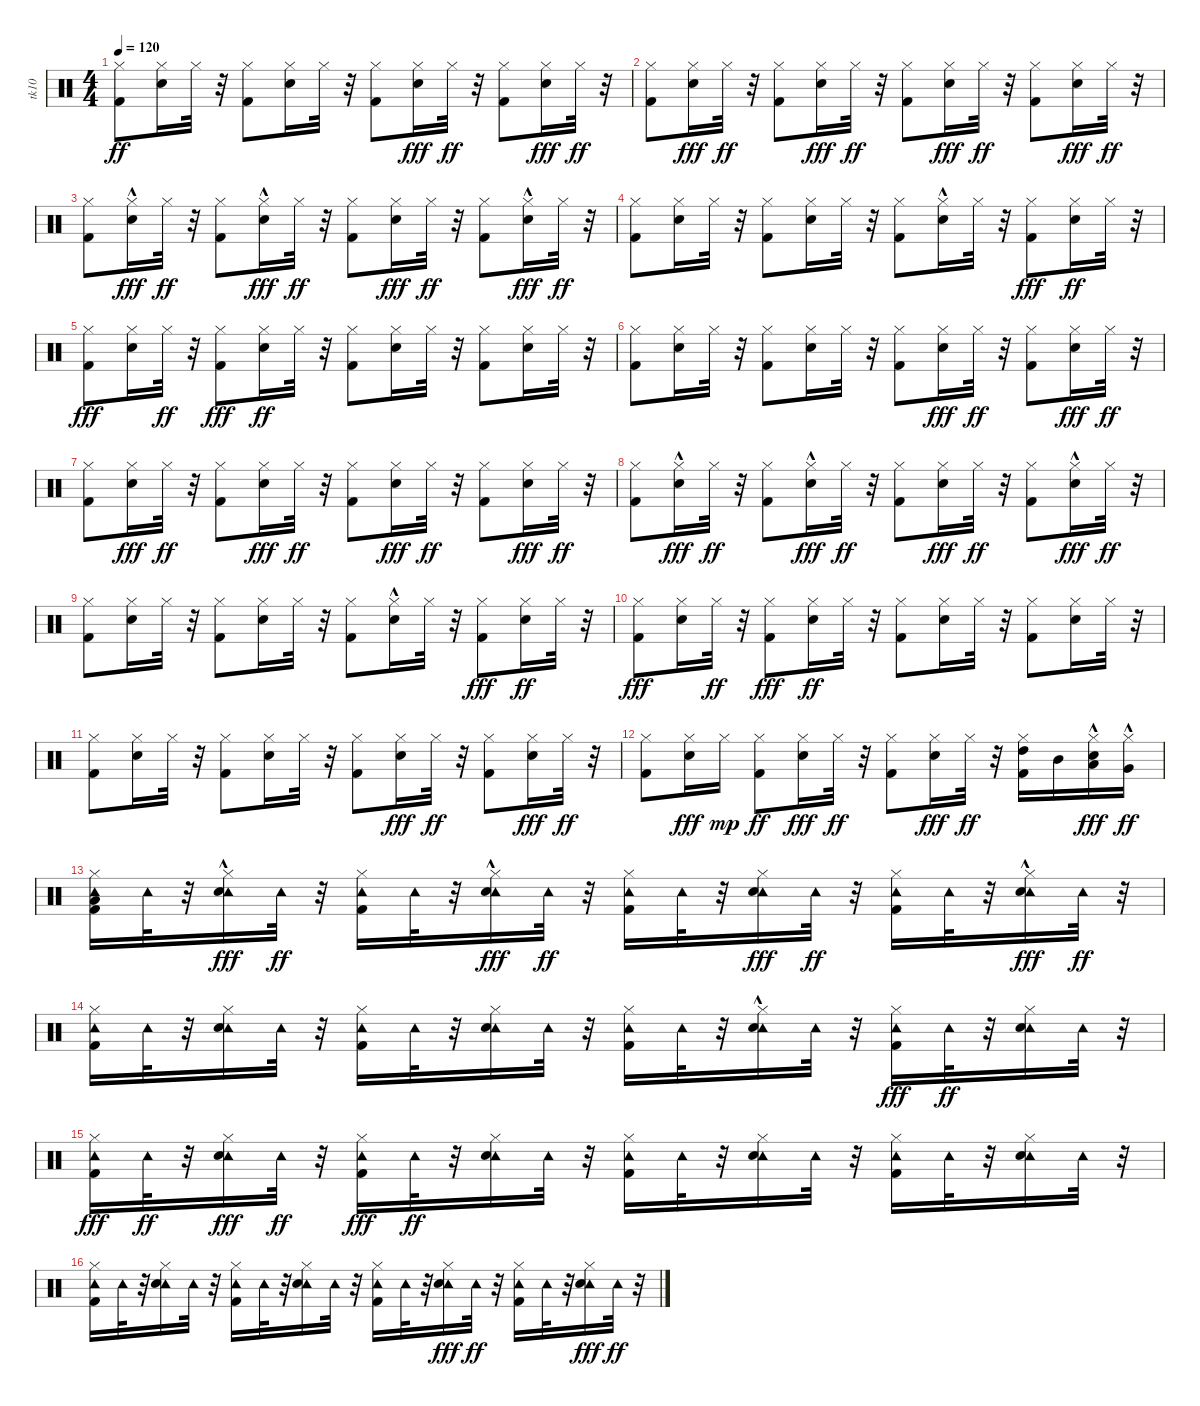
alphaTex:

\track ("tk10" "tk10") {instrument percussion}
\staff {score}
\articulation defaults
\ts (4 4)
\tempo 120
\clef neutral
\ks c
("Hi-Hat (closed)" "Kick (hit) 2").8{dy ff} ("Hi-Hat (closed)" "Snare (hit) 2").16 "Hi-Hat (closed)".32 r.32 ("Hi-Hat (closed)" "Kick (hit) 2").8 ("Hi-Hat (closed)" "Snare (hit) 2").16 "Hi-Hat (closed)".32 r.32 ("Hi-Hat (closed)" "Kick (hit) 2").8 ("Hi-Hat (closed)" "Snare (hit) 2").16{dy fff} "Hi-Hat (closed)".32{dy ff} r.32 ("Hi-Hat (closed)" "Kick (hit) 2").8 ("Hi-Hat (closed)" "Snare (hit) 2").16{dy fff} "Hi-Hat (closed)".32{dy ff} r.32 |
("Hi-Hat (closed)" "Kick (hit) 2").8 ("Hi-Hat (closed)" "Snare (hit) 2").16{dy fff} "Hi-Hat (closed)".32{dy ff} r.32 ("Hi-Hat (closed)" "Kick (hit) 2").8 ("Hi-Hat (closed)" "Snare (hit) 2").16{dy fff} "Hi-Hat (closed)".32{dy ff} r.32 ("Hi-Hat (closed)" "Kick (hit) 2").8 ("Hi-Hat (closed)" "Snare (hit) 2").16{dy fff} "Hi-Hat (closed)".32{dy ff} r.32 ("Hi-Hat (closed)" "Kick (hit) 2").8 ("Hi-Hat (closed)" "Snare (hit) 2").16{dy fff} "Hi-Hat (closed)".32{dy ff} r.32 |
("Hi-Hat (closed)" "Kick (hit) 2").8 ("Hi-Hat (closed)" "Snare (hit) 2"{hac}).16{dy fff} "Hi-Hat (closed)".32{dy ff} r.32 ("Hi-Hat (closed)" "Kick (hit) 2").8 ("Hi-Hat (closed)" "Snare (hit) 2"{hac}).16{dy fff} "Hi-Hat (closed)".32{dy ff} r.32 ("Hi-Hat (closed)" "Kick (hit) 2").8 ("Hi-Hat (closed)" "Snare (hit) 2").16{dy fff} "Hi-Hat (closed)".32{dy ff} r.32 ("Hi-Hat (closed)" "Kick (hit) 2").8 ("Hi-Hat (closed)" "Snare (hit) 2"{hac}).16{dy fff} "Hi-Hat (closed)".32{dy ff} r.32 |
("Hi-Hat (closed)" "Kick (hit) 2").8 ("Hi-Hat (closed)" "Snare (hit) 2").16 "Hi-Hat (closed)".32 r.32 ("Hi-Hat (closed)" "Kick (hit) 2").8 ("Hi-Hat (closed)" "Snare (hit) 2").16 "Hi-Hat (closed)".32 r.32 ("Hi-Hat (closed)" "Kick (hit) 2").8 ("Hi-Hat (closed)" "Snare (hit) 2"{hac}).16 "Hi-Hat (closed)".32 r.32 ("Hi-Hat (closed)" "Kick (hit) 2").8{dy fff} ("Hi-Hat (closed)" "Snare (hit) 2").16{dy ff} "Hi-Hat (closed)".32 r.32 |
("Hi-Hat (closed)" "Kick (hit) 2").8{dy fff} ("Hi-Hat (closed)" "Snare (hit) 2").16 "Hi-Hat (closed)".32{dy ff} r.32 ("Hi-Hat (closed)" "Kick (hit) 2").8{dy fff} ("Hi-Hat (closed)" "Snare (hit) 2").16{dy ff} "Hi-Hat (closed)".32 r.32 ("Hi-Hat (closed)" "Kick (hit) 2").8 ("Hi-Hat (closed)" "Snare (hit) 2").16 "Hi-Hat (closed)".32 r.32 ("Hi-Hat (closed)" "Kick (hit) 2").8 ("Hi-Hat (closed)" "Snare (hit) 2").16 "Hi-Hat (closed)".32 r.32 |
("Hi-Hat (closed)" "Kick (hit) 2").8 ("Hi-Hat (closed)" "Snare (hit) 2").16 "Hi-Hat (closed)".32 r.32 ("Hi-Hat (closed)" "Kick (hit) 2").8 ("Hi-Hat (closed)" "Snare (hit) 2").16 "Hi-Hat (closed)".32 r.32 ("Hi-Hat (closed)" "Kick (hit) 2").8 ("Hi-Hat (closed)" "Snare (hit) 2").16{dy fff} "Hi-Hat (closed)".32{dy ff} r.32 ("Hi-Hat (closed)" "Kick (hit) 2").8 ("Hi-Hat (closed)" "Snare (hit) 2").16{dy fff} "Hi-Hat (closed)".32{dy ff} r.32 |
("Hi-Hat (closed)" "Kick (hit) 2").8 ("Hi-Hat (closed)" "Snare (hit) 2").16{dy fff} "Hi-Hat (closed)".32{dy ff} r.32 ("Hi-Hat (closed)" "Kick (hit) 2").8 ("Hi-Hat (closed)" "Snare (hit) 2").16{dy fff} "Hi-Hat (closed)".32{dy ff} r.32 ("Hi-Hat (closed)" "Kick (hit) 2").8 ("Hi-Hat (closed)" "Snare (hit) 2").16{dy fff} "Hi-Hat (closed)".32{dy ff} r.32 ("Hi-Hat (closed)" "Kick (hit) 2").8 ("Hi-Hat (closed)" "Snare (hit) 2").16{dy fff} "Hi-Hat (closed)".32{dy ff} r.32 |
("Hi-Hat (closed)" "Kick (hit) 2").8 ("Hi-Hat (closed)" "Snare (hit) 2"{hac}).16{dy fff} "Hi-Hat (closed)".32{dy ff} r.32 ("Hi-Hat (closed)" "Kick (hit) 2").8 ("Hi-Hat (closed)" "Snare (hit) 2"{hac}).16{dy fff} "Hi-Hat (closed)".32{dy ff} r.32 ("Hi-Hat (closed)" "Kick (hit) 2").8 ("Hi-Hat (closed)" "Snare (hit) 2").16{dy fff} "Hi-Hat (closed)".32{dy ff} r.32 ("Hi-Hat (closed)" "Kick (hit) 2").8 ("Hi-Hat (closed)" "Snare (hit) 2"{hac}).16{dy fff} "Hi-Hat (closed)".32{dy ff} r.32 |
("Hi-Hat (closed)" "Kick (hit) 2").8 ("Hi-Hat (closed)" "Snare (hit) 2").16 "Hi-Hat (closed)".32 r.32 ("Hi-Hat (closed)" "Kick (hit) 2").8 ("Hi-Hat (closed)" "Snare (hit) 2").16 "Hi-Hat (closed)".32 r.32 ("Hi-Hat (closed)" "Kick (hit) 2").8 ("Hi-Hat (closed)" "Snare (hit) 2"{hac}).16 "Hi-Hat (closed)".32 r.32 ("Hi-Hat (closed)" "Kick (hit) 2").8{dy fff} ("Hi-Hat (closed)" "Snare (hit) 2").16{dy ff} "Hi-Hat (closed)".32 r.32 |
("Hi-Hat (closed)" "Kick (hit) 2").8{dy fff} ("Hi-Hat (closed)" "Snare (hit) 2").16 "Hi-Hat (closed)".32{dy ff} r.32 ("Hi-Hat (closed)" "Kick (hit) 2").8{dy fff} ("Hi-Hat (closed)" "Snare (hit) 2").16{dy ff} "Hi-Hat (closed)".32 r.32 ("Hi-Hat (closed)" "Kick (hit) 2").8 ("Hi-Hat (closed)" "Snare (hit) 2").16 "Hi-Hat (closed)".32 r.32 ("Hi-Hat (closed)" "Kick (hit) 2").8 ("Hi-Hat (closed)" "Snare (hit) 2").16 "Hi-Hat (closed)".32 r.32 |
("Hi-Hat (closed)" "Kick (hit) 2").8 ("Hi-Hat (closed)" "Snare (hit) 2").16 "Hi-Hat (closed)".32 r.32 ("Hi-Hat (closed)" "Kick (hit) 2").8 ("Hi-Hat (closed)" "Snare (hit) 2").16 "Hi-Hat (closed)".32 r.32 ("Hi-Hat (closed)" "Kick (hit) 2").8 ("Hi-Hat (closed)" "Snare (hit) 2").16{dy fff} "Hi-Hat (closed)".32{dy ff} r.32 ("Hi-Hat (closed)" "Kick (hit) 2").8 ("Hi-Hat (closed)" "Snare (hit) 2").16{dy fff} "Hi-Hat (closed)".32{dy ff} r.32 |
("Hi-Hat (closed)" "Kick (hit) 2").8 ("Hi-Hat (closed)" "Snare (hit) 2").16{dy fff} "Hi-Hat (closed)".16{dy mp} ("Hi-Hat (closed)" "Kick (hit) 2").8{dy ff} ("Hi-Hat (closed)" "Snare (hit) 2").16{dy fff} "Hi-Hat (closed)".32{dy ff} r.32 ("Hi-Hat (closed)" "Kick (hit) 2").8 ("Hi-Hat (closed)" "Snare (hit) 2").16{dy fff} "Hi-Hat (closed)".32{dy ff} r.32 ("Hi-Hat (closed)" "Kick (hit) 2" "High Tom (hit)").16 "Mid Tom (hit)".16 ("Hi-Hat (closed)" "Snare (hit) 2" "Low Tom (hit)"{hac}).16{dy fff} ("Hi-Hat (closed)" "Very Low Tom (hit)"{hac}).16{dy ff} |
("Hi-Hat (closed)" "Tambourine (hit)" "Low Floor Tom (hit)" "Kick (hit) 2").16 "Tambourine (hit)".32 r.32 ("Hi-Hat (closed)" "Tambourine (hit)" "Snare (hit) 2"{hac}).16{dy fff} "Tambourine (hit)".32{dy ff} r.32 ("Hi-Hat (closed)" "Tambourine (hit)" "Kick (hit) 2").16 "Tambourine (hit)".32 r.32 ("Tambourine (hit)" "Hi-Hat (closed)" "Snare (hit) 2"{hac}).16{dy fff} "Tambourine (hit)".32{dy ff} r.32 ("Tambourine (hit)" "Hi-Hat (closed)" "Kick (hit) 2").16 "Tambourine (hit)".32 r.32 ("Tambourine (hit)" "Hi-Hat (closed)" "Snare (hit) 2").16{dy fff} "Tambourine (hit)".32{dy ff} r.32 ("Hi-Hat (closed)" "Tambourine (hit)" "Kick (hit) 2").16 "Tambourine (hit)".32 r.32 ("Hi-Hat (closed)" "Tambourine (hit)" "Snare (hit) 2"{hac}).16{dy fff} "Tambourine (hit)".32{dy ff} r.32 |
("Tambourine (hit)" "Hi-Hat (closed)" "Kick (hit) 2").16 "Tambourine (hit)".32 r.32 ("Hi-Hat (closed)" "Tambourine (hit)" "Snare (hit) 2").16 "Tambourine (hit)".32 r.32 ("Tambourine (hit)" "Hi-Hat (closed)" "Kick (hit) 2").16 "Tambourine (hit)".32 r.32 ("Tambourine (hit)" "Hi-Hat (closed)" "Snare (hit) 2").16 "Tambourine (hit)".32 r.32 ("Tambourine (hit)" "Hi-Hat (closed)" "Kick (hit) 2").16 "Tambourine (hit)".32 r.32 ("Tambourine (hit)" "Hi-Hat (closed)" "Snare (hit) 2"{hac}).16 "Tambourine (hit)".32 r.32 ("Tambourine (hit)" "Hi-Hat (closed)" "Kick (hit) 2").16{dy fff} "Tambourine (hit)".32{dy ff} r.32 ("Hi-Hat (closed)" "Tambourine (hit)" "Snare (hit) 2").16 "Tambourine (hit)".32 r.32 |
("Tambourine (hit)" "Hi-Hat (closed)" "Kick (hit) 2").16{dy fff} "Tambourine (hit)".32{dy ff} r.32 ("Hi-Hat (closed)" "Tambourine (hit)" "Snare (hit) 2").16{dy fff} "Tambourine (hit)".32{dy ff} r.32 ("Tambourine (hit)" "Hi-Hat (closed)" "Kick (hit) 2").16{dy fff} "Tambourine (hit)".32{dy ff} r.32 ("Tambourine (hit)" "Hi-Hat (closed)" "Snare (hit) 2").16 "Tambourine (hit)".32 r.32 ("Hi-Hat (closed)" "Tambourine (hit)" "Kick (hit) 2").16 "Tambourine (hit)".32 r.32 ("Hi-Hat (closed)" "Tambourine (hit)" "Snare (hit) 2").16 "Tambourine (hit)".32 r.32 ("Tambourine (hit)" "Hi-Hat (closed)" "Kick (hit) 2").16 "Tambourine (hit)".32 r.32 ("Tambourine (hit)" "Hi-Hat (closed)" "Snare (hit) 2").16 "Tambourine (hit)".32 r.32 |
("Tambourine (hit)" "Hi-Hat (closed)" "Kick (hit) 2").16 "Tambourine (hit)".32 r.32 ("Hi-Hat (closed)" "Tambourine (hit)" "Snare (hit) 2").16 "Tambourine (hit)".32 r.32 ("Tambourine (hit)" "Hi-Hat (closed)" "Kick (hit) 2").16 "Tambourine (hit)".32 r.32 ("Tambourine (hit)" "Hi-Hat (closed)" "Snare (hit) 2").16 "Tambourine (hit)".32 r.32 ("Tambourine (hit)" "Hi-Hat (closed)" "Kick (hit) 2").16 "Tambourine (hit)".32 r.32 ("Tambourine (hit)" "Hi-Hat (closed)" "Snare (hit) 2").16{dy fff} "Tambourine (hit)".32{dy ff} r.32 ("Tambourine (hit)" "Hi-Hat (closed)" "Kick (hit) 2").16 "Tambourine (hit)".32 r.32 ("Hi-Hat (closed)" "Tambourine (hit)" "Snare (hit) 2").16{dy fff} "Tambourine (hit)".32{dy ff} r.32
